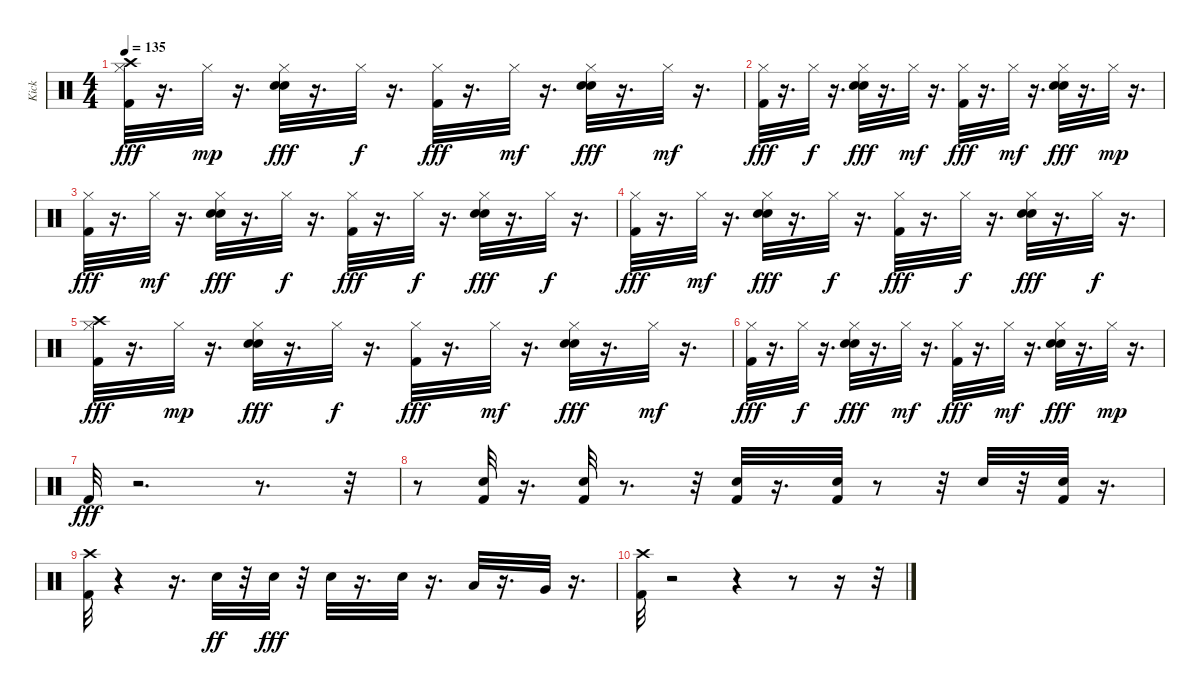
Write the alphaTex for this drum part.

\track ("Kick" "Kick") {instrument percussion}
\staff {score}
\articulation defaults
\ts (4 4)
\tempo 135
\clef neutral
\ks c
("Kick (hit) 2" "Hi-Hat (closed)" "Crash high (hit)").32{dy fff} r.16{d} "Hi-Hat (closed)".32{dy mp} r.16{d} ("Electric Snare (hit)" "Hi-Hat (closed)" "Hand Clap (hit)").32{dy fff} r.16{d} "Hi-Hat (closed)".32{dy f} r.16{d} ("Kick (hit) 2" "Hi-Hat (closed)").32{dy fff} r.16{d} "Hi-Hat (closed)".32{dy mf} r.16{d} ("Electric Snare (hit)" "Hi-Hat (closed)" "Hand Clap (hit)").32{dy fff} r.16{d} "Hi-Hat (closed)".32{dy mf} r.16{d} |
("Kick (hit) 2" "Hi-Hat (closed)").32{dy fff} r.16{d} "Hi-Hat (closed)".32{dy f} r.16{d} ("Electric Snare (hit)" "Hi-Hat (closed)" "Hand Clap (hit)").32{dy fff} r.16{d} "Hi-Hat (closed)".32{dy mf} r.16{d} ("Kick (hit) 2" "Hi-Hat (closed)").32{dy fff} r.16{d} "Hi-Hat (closed)".32{dy mf} r.16{d} ("Electric Snare (hit)" "Hi-Hat (closed)" "Hand Clap (hit)").32{dy fff} r.16{d} "Hi-Hat (closed)".32{dy mp} r.16{d} |
("Kick (hit) 2" "Hi-Hat (closed)").32{dy fff} r.16{d} "Hi-Hat (closed)".32{dy mf} r.16{d} ("Electric Snare (hit)" "Hi-Hat (closed)" "Hand Clap (hit)").32{dy fff} r.16{d} "Hi-Hat (closed)".32{dy f} r.16{d} ("Kick (hit) 2" "Hi-Hat (closed)").32{dy fff} r.16{d} "Hi-Hat (closed)".32{dy f} r.16{d} ("Electric Snare (hit)" "Hi-Hat (closed)" "Hand Clap (hit)").32{dy fff} r.16{d} "Hi-Hat (closed)".32{dy f} r.16{d} |
("Kick (hit) 2" "Hi-Hat (closed)").32{dy fff} r.16{d} "Hi-Hat (closed)".32{dy mf} r.16{d} ("Electric Snare (hit)" "Hi-Hat (closed)" "Hand Clap (hit)").32{dy fff} r.16{d} "Hi-Hat (closed)".32{dy f} r.16{d} ("Kick (hit) 2" "Hi-Hat (closed)").32{dy fff} r.16{d} "Hi-Hat (closed)".32{dy f} r.16{d} ("Electric Snare (hit)" "Hi-Hat (closed)" "Hand Clap (hit)").32{dy fff} r.16{d} "Hi-Hat (closed)".32{dy f} r.16{d} |
("Kick (hit) 2" "Hi-Hat (closed)" "Crash high (hit)").32{dy fff} r.16{d} "Hi-Hat (closed)".32{dy mp} r.16{d} ("Electric Snare (hit)" "Hi-Hat (closed)" "Hand Clap (hit)").32{dy fff} r.16{d} "Hi-Hat (closed)".32{dy f} r.16{d} ("Kick (hit) 2" "Hi-Hat (closed)").32{dy fff} r.16{d} "Hi-Hat (closed)".32{dy mf} r.16{d} ("Electric Snare (hit)" "Hi-Hat (closed)" "Hand Clap (hit)").32{dy fff} r.16{d} "Hi-Hat (closed)".32{dy mf} r.16{d} |
("Kick (hit) 2" "Hi-Hat (closed)").32{dy fff} r.16{d} "Hi-Hat (closed)".32{dy f} r.16{d} ("Electric Snare (hit)" "Hi-Hat (closed)" "Hand Clap (hit)").32{dy fff} r.16{d} "Hi-Hat (closed)".32{dy mf} r.16{d} ("Kick (hit) 2" "Hi-Hat (closed)").32{dy fff} r.16{d} "Hi-Hat (closed)".32{dy mf} r.16{d} ("Electric Snare (hit)" "Hi-Hat (closed)" "Hand Clap (hit)").32{dy fff} r.16{d} "Hi-Hat (closed)".32{dy mp} r.16{d} |
"Kick (hit) 2".32{dy fff} r.2{d} r.8{d} r.32 |
r.8 ("Kick (hit) 2" "Electric Snare (hit)").32 r.16{d} ("Kick (hit) 2" "Electric Snare (hit)").32 r.8{d} r.32 ("Kick (hit) 2" "Electric Snare (hit)").32 r.16{d} ("Kick (hit) 2" "Electric Snare (hit)").32 r.8 r.32 "Electric Snare (hit)".32 r.32 ("Kick (hit) 2" "Electric Snare (hit)").32 r.16{d} |
("Kick (hit) 2" "Crash high (hit)").32 r.4 r.16{d} "Electric Snare (hit)".32{dy ff} r.32 "Electric Snare (hit)".32{dy fff} r.32 "Electric Snare (hit)".32 r.16{d} "Electric Snare (hit)".32 r.16{d} "Low Tom (hit)".32 r.16{d} "Very Low Tom (hit)".32 r.16{d} |
("Kick (hit) 2" "Crash high (hit)").32 r.2 r.4 r.8 r.16 r.32
